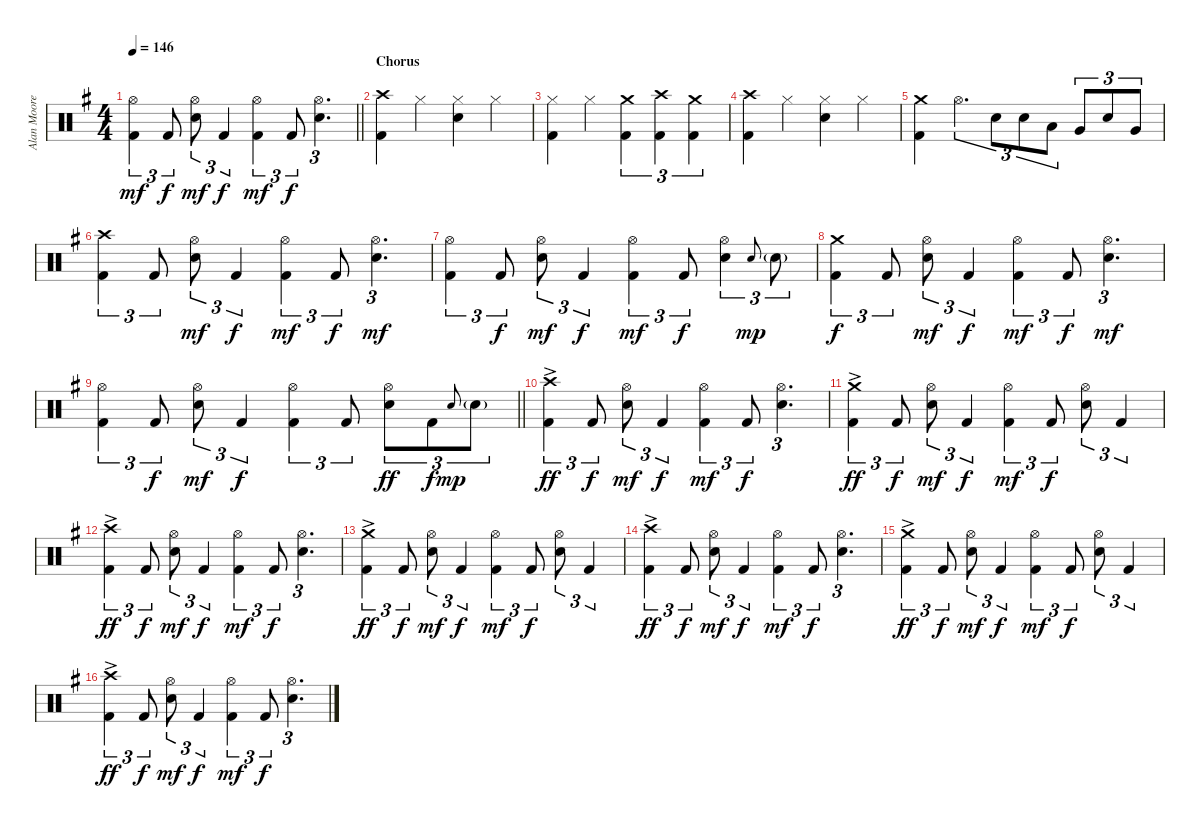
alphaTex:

\track ("Alan Moore" "Alan Moore") {instrument percussion}
\staff {score}
\articulation defaults
\ts (4 4)
\tempo 146
\clef neutral
\barLineRight lightlight
\ks eminor
("Hi-Hat (open)" "Kick (hit) 2").4{tu (3 2) dy mf} "Kick (hit) 2".8{tu (3 2) dy f} ("Hi-Hat (open)" "Electric Snare (hit)").8{tu (3 2) dy mf} "Kick (hit) 2".4{tu (3 2) dy f} ("Hi-Hat (open)" "Kick (hit) 2").4{tu (3 2) dy mf} "Kick (hit) 2".8{tu (3 2) dy f} ("Hi-Hat (open)" "Electric Snare (hit)").4{d tu (3 2)} |
\section ("" "Chorus")
("Crash high (hit)" "Kick (hit) 2").4 "Hi-Hat (closed)".4 ("Hi-Hat (closed)" "Electric Snare (hit)").4 "Hi-Hat (closed)".4 |
("Hi-Hat (closed)" "Kick (hit) 2").4 "Hi-Hat (closed)".4 ("Crash medium (hit)" "Kick (hit) 2").4{tu (3 2)} ("Crash high (hit)" "Kick (hit) 2").4{tu (3 2)} ("Crash medium (hit)" "Kick (hit) 2").4{tu (3 2)} |
("Crash high (hit)" "Kick (hit) 2").4 "Hi-Hat (closed)".4 ("Hi-Hat (closed)" "Electric Snare (hit)").4 "Hi-Hat (closed)".4 |
("Crash medium (hit)" "Kick (hit) 2").4 "Hi-Hat (open)".4{d tu (3 2)} "Electric Snare (hit)".8{tu (3 2)} "Electric Snare (hit)".8{tu (3 2)} "Low Tom (hit)".8{tu (3 2)} "Very Low Tom (hit)".8{tu (3 2)} "Electric Snare (hit)".8{tu (3 2)} "Very Low Tom (hit)".8{tu (3 2)} |
("Crash high (hit)" "Kick (hit) 2").4{tu (3 2)} "Kick (hit) 2".8{tu (3 2)} ("Hi-Hat (open)" "Electric Snare (hit)").8{tu (3 2) dy mf} "Kick (hit) 2".4{tu (3 2) dy f} ("Hi-Hat (open)" "Kick (hit) 2").4{tu (3 2) dy mf} "Kick (hit) 2".8{tu (3 2) dy f} ("Hi-Hat (open)" "Electric Snare (hit)").4{d tu (3 2) dy mf} |
("Hi-Hat (open)" "Kick (hit) 2").4{tu (3 2)} "Kick (hit) 2".8{tu (3 2) dy f} ("Hi-Hat (open)" "Electric Snare (hit)").8{tu (3 2) dy mf} "Kick (hit) 2".4{tu (3 2) dy f} ("Hi-Hat (open)" "Kick (hit) 2").4{tu (3 2) dy mf} "Kick (hit) 2".8{tu (3 2) dy f} ("Hi-Hat (open)" "Electric Snare (hit)").4{tu (3 2)} "Electric Snare (hit)".8{gr onbeat dy mp} "Electric Snare (hit)"{g}.8{tu (3 2)} |
("Crash medium (hit)" "Kick (hit) 2").4{tu (3 2) dy f} "Kick (hit) 2".8{tu (3 2)} ("Hi-Hat (open)" "Electric Snare (hit)").8{tu (3 2) dy mf} "Kick (hit) 2".4{tu (3 2) dy f} ("Hi-Hat (open)" "Kick (hit) 2").4{tu (3 2) dy mf} "Kick (hit) 2".8{tu (3 2) dy f} ("Hi-Hat (open)" "Electric Snare (hit)").4{d tu (3 2) dy mf} |
\barLineRight lightlight
("Hi-Hat (open)" "Kick (hit) 2").4{tu (3 2)} "Kick (hit) 2".8{tu (3 2) dy f} ("Hi-Hat (open)" "Electric Snare (hit)").8{tu (3 2) dy mf} "Kick (hit) 2".4{tu (3 2) dy f} ("Hi-Hat (open)" "Kick (hit) 2").4{tu (3 2)} "Kick (hit) 2".8{tu (3 2)} ("Hi-Hat (open)" "Electric Snare (hit)").8{tu (3 2) dy ff} "Kick (hit) 2".8{tu (3 2) dy f} "Electric Snare (hit)".8{gr onbeat dy mp} "Electric Snare (hit)"{g}.8{tu (3 2)} |
("Crash high (hit)"{ac} "Kick (hit) 2").4{tu (3 2) dy ff} "Kick (hit) 2".8{tu (3 2) dy f} ("Hi-Hat (open)" "Electric Snare (hit)").8{tu (3 2) dy mf} "Kick (hit) 2".4{tu (3 2) dy f} ("Hi-Hat (open)" "Kick (hit) 2").4{tu (3 2) dy mf} "Kick (hit) 2".8{tu (3 2) dy f} ("Hi-Hat (open)" "Electric Snare (hit)").4{d tu (3 2)} |
("Crash medium (hit)"{ac} "Kick (hit) 2").4{tu (3 2) dy ff} "Kick (hit) 2".8{tu (3 2) dy f} ("Hi-Hat (open)" "Electric Snare (hit)").8{tu (3 2) dy mf} "Kick (hit) 2".4{tu (3 2) dy f} ("Hi-Hat (open)" "Kick (hit) 2").4{tu (3 2) dy mf} "Kick (hit) 2".8{tu (3 2) dy f} ("Hi-Hat (open)" "Electric Snare (hit)").8{tu (3 2)} "Kick (hit) 2".4{tu (3 2)} |
("Crash high (hit)"{ac} "Kick (hit) 2").4{tu (3 2) dy ff} "Kick (hit) 2".8{tu (3 2) dy f} ("Hi-Hat (open)" "Electric Snare (hit)").8{tu (3 2) dy mf} "Kick (hit) 2".4{tu (3 2) dy f} ("Hi-Hat (open)" "Kick (hit) 2").4{tu (3 2) dy mf} "Kick (hit) 2".8{tu (3 2) dy f} ("Hi-Hat (open)" "Electric Snare (hit)").4{d tu (3 2)} |
("Crash medium (hit)"{ac} "Kick (hit) 2").4{tu (3 2) dy ff} "Kick (hit) 2".8{tu (3 2) dy f} ("Hi-Hat (open)" "Electric Snare (hit)").8{tu (3 2) dy mf} "Kick (hit) 2".4{tu (3 2) dy f} ("Hi-Hat (open)" "Kick (hit) 2").4{tu (3 2) dy mf} "Kick (hit) 2".8{tu (3 2) dy f} ("Hi-Hat (open)" "Electric Snare (hit)").8{tu (3 2)} "Kick (hit) 2".4{tu (3 2)} |
("Crash high (hit)"{ac} "Kick (hit) 2").4{tu (3 2) dy ff} "Kick (hit) 2".8{tu (3 2) dy f} ("Hi-Hat (open)" "Electric Snare (hit)").8{tu (3 2) dy mf} "Kick (hit) 2".4{tu (3 2) dy f} ("Hi-Hat (open)" "Kick (hit) 2").4{tu (3 2) dy mf} "Kick (hit) 2".8{tu (3 2) dy f} ("Hi-Hat (open)" "Electric Snare (hit)").4{d tu (3 2)} |
("Crash medium (hit)"{ac} "Kick (hit) 2").4{tu (3 2) dy ff} "Kick (hit) 2".8{tu (3 2) dy f} ("Hi-Hat (open)" "Electric Snare (hit)").8{tu (3 2) dy mf} "Kick (hit) 2".4{tu (3 2) dy f} ("Hi-Hat (open)" "Kick (hit) 2").4{tu (3 2) dy mf} "Kick (hit) 2".8{tu (3 2) dy f} ("Hi-Hat (open)" "Electric Snare (hit)").8{tu (3 2)} "Kick (hit) 2".4{tu (3 2)} |
("Crash high (hit)"{ac} "Kick (hit) 2").4{tu (3 2) dy ff} "Kick (hit) 2".8{tu (3 2) dy f} ("Hi-Hat (open)" "Electric Snare (hit)").8{tu (3 2) dy mf} "Kick (hit) 2".4{tu (3 2) dy f} ("Hi-Hat (open)" "Kick (hit) 2").4{tu (3 2) dy mf} "Kick (hit) 2".8{tu (3 2) dy f} ("Hi-Hat (open)" "Electric Snare (hit)").4{d tu (3 2)}
